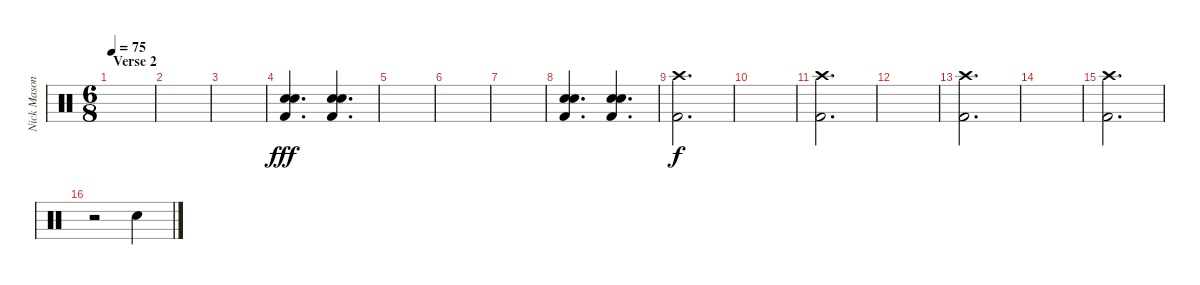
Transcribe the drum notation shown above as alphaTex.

\track ("Nick Mason (Drums)" "Nick Mason") {instrument percussion}
\staff {score}
\articulation defaults
\ts (6 8)
\section ("" "Verse 2")
\tempo 75
\clef neutral
\ks c
|
|
|
("Snare (hit) 2" "Snare (hit) 2" "Kick (hit) 2").4{d dy fff} ("Snare (hit) 2" "Snare (hit) 2" "Kick (hit) 2").4{d} |
|
|
|
("Snare (hit) 2" "Snare (hit) 2" "Kick (hit) 2").4{d} ("Snare (hit) 2" "Snare (hit) 2" "Kick (hit) 2").4{d} |
("Crash high (hit)" "Kick (hit) 2").2{d dy f} |
|
("Crash high (hit)" "Kick (hit) 2").2{d} |
|
("Crash high (hit)" "Kick (hit) 2").2{d} |
|
("Crash high (hit)" "Kick (hit) 2").2{d} |
r.2 "Snare (hit) 2".4
